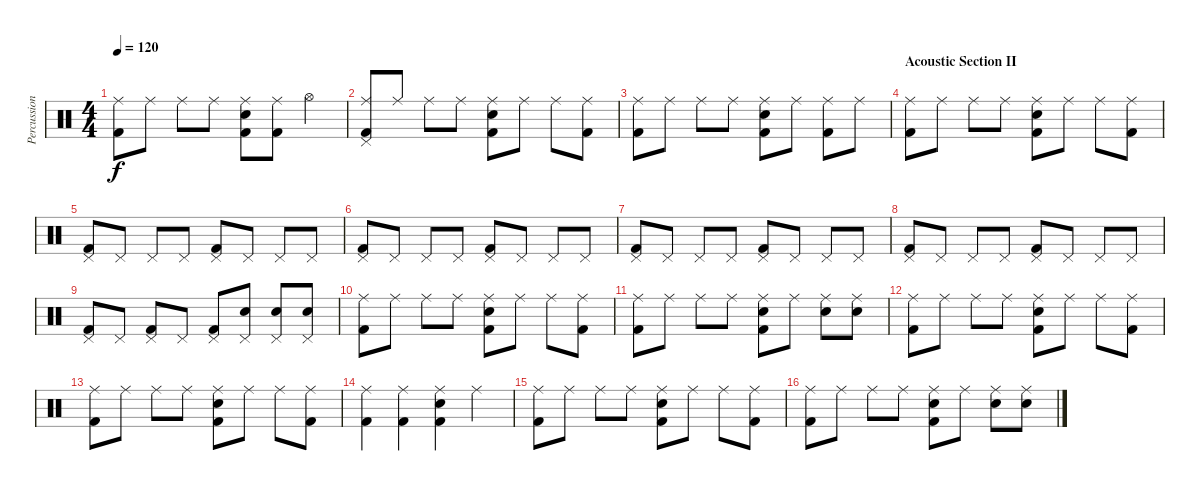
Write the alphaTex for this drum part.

\track ("Percussion" "Percussion") {instrument percussion}
\staff {score}
\articulation defaults
\ts (4 4)
\tempo 120
\clef neutral
\ks c
("Ride (middle)" "Kick (hit) 2").8{dy f} "Ride (middle)".8 "Ride (middle)".8 "Ride (middle)".8 ("Ride (middle)" "Snare (hit) 2" "Kick (hit) 2").8 ("Ride (middle)" "Kick (hit) 2").8 "Hi-Hat (open)".4 |
("Ride (middle)" "Pedal Hi-Hat (hit)" "Kick (hit) 2").8 "Ride (middle)".8 "Ride (middle)".8 "Ride (middle)".8 ("Ride (middle)" "Snare (hit) 2" "Kick (hit) 2").8 "Ride (middle)".8 "Ride (middle)".8 ("Ride (middle)" "Kick (hit) 2").8 |
("Ride (middle)" "Kick (hit) 2").8 "Ride (middle)".8 "Ride (middle)".8 "Ride (middle)".8 ("Ride (middle)" "Snare (hit) 2" "Kick (hit) 2").8 "Ride (middle)".8 ("Ride (middle)" "Kick (hit) 2").8 "Ride (middle)".8 |
\section ("" "Acoustic Section II")
("Ride (middle)" "Kick (hit) 2").8 "Ride (middle)".8 "Ride (middle)".8 "Ride (middle)".8 ("Ride (middle)" "Snare (hit) 2" "Kick (hit) 2").8 "Ride (middle)".8 "Ride (middle)".8 ("Ride (middle)" "Kick (hit) 2").8 |
("Pedal Hi-Hat (hit)" "Kick (hit) 2").8 "Pedal Hi-Hat (hit)".8 "Pedal Hi-Hat (hit)".8 "Pedal Hi-Hat (hit)".8 ("Pedal Hi-Hat (hit)" "Kick (hit) 2").8 "Pedal Hi-Hat (hit)".8 "Pedal Hi-Hat (hit)".8 "Pedal Hi-Hat (hit)".8 |
("Pedal Hi-Hat (hit)" "Kick (hit) 2").8 "Pedal Hi-Hat (hit)".8 "Pedal Hi-Hat (hit)".8 "Pedal Hi-Hat (hit)".8 ("Pedal Hi-Hat (hit)" "Kick (hit) 2").8 "Pedal Hi-Hat (hit)".8 "Pedal Hi-Hat (hit)".8 "Pedal Hi-Hat (hit)".8 |
("Pedal Hi-Hat (hit)" "Kick (hit) 2").8 "Pedal Hi-Hat (hit)".8 "Pedal Hi-Hat (hit)".8 "Pedal Hi-Hat (hit)".8 ("Pedal Hi-Hat (hit)" "Kick (hit) 2").8 "Pedal Hi-Hat (hit)".8 "Pedal Hi-Hat (hit)".8 "Pedal Hi-Hat (hit)".8 |
("Pedal Hi-Hat (hit)" "Kick (hit) 2").8 "Pedal Hi-Hat (hit)".8 "Pedal Hi-Hat (hit)".8 "Pedal Hi-Hat (hit)".8 ("Pedal Hi-Hat (hit)" "Kick (hit) 2").8 "Pedal Hi-Hat (hit)".8 "Pedal Hi-Hat (hit)".8 "Pedal Hi-Hat (hit)".8 |
("Pedal Hi-Hat (hit)" "Kick (hit) 2").8 "Pedal Hi-Hat (hit)".8 ("Pedal Hi-Hat (hit)" "Kick (hit) 2").8 "Pedal Hi-Hat (hit)".8 ("Pedal Hi-Hat (hit)" "Kick (hit) 2").8 ("Pedal Hi-Hat (hit)" "Snare (hit) 2").8 ("Pedal Hi-Hat (hit)" "Snare (hit) 2").8 ("Pedal Hi-Hat (hit)" "Snare (hit) 2").8 |
("Ride (middle)" "Kick (hit) 2").8 "Ride (middle)".8 "Ride (middle)".8 "Ride (middle)".8 ("Ride (middle)" "Snare (hit) 2" "Kick (hit) 2").8 "Ride (middle)".8 "Ride (middle)".8 ("Ride (middle)" "Kick (hit) 2").8 |
("Ride (middle)" "Kick (hit) 2").8 "Ride (middle)".8 "Ride (middle)".8 "Ride (middle)".8 ("Ride (middle)" "Snare (hit) 2" "Kick (hit) 2").8 "Ride (middle)".8 ("Ride (middle)" "Snare (hit) 2").8 ("Ride (middle)" "Snare (hit) 2").8 |
("Ride (middle)" "Kick (hit) 2").8 "Ride (middle)".8 "Ride (middle)".8 "Ride (middle)".8 ("Ride (middle)" "Snare (hit) 2" "Kick (hit) 2").8 "Ride (middle)".8 "Ride (middle)".8 ("Ride (middle)" "Kick (hit) 2").8 |
("Ride (middle)" "Kick (hit) 2").8 "Ride (middle)".8 "Ride (middle)".8 "Ride (middle)".8 ("Ride (middle)" "Snare (hit) 2" "Kick (hit) 2").8 "Ride (middle)".8 "Ride (middle)".8 ("Ride (middle)" "Kick (hit) 2").8 |
("Ride (middle)" "Kick (hit) 2").4 ("Ride (middle)" "Kick (hit) 2").4 ("Ride (middle)" "Snare (hit) 2" "Kick (hit) 2").4 "Ride (middle)".4 |
("Ride (middle)" "Kick (hit) 2").8 "Ride (middle)".8 "Ride (middle)".8 "Ride (middle)".8 ("Ride (middle)" "Snare (hit) 2" "Kick (hit) 2").8 "Ride (middle)".8 "Ride (middle)".8 ("Ride (middle)" "Kick (hit) 2").8 |
("Ride (middle)" "Kick (hit) 2").8 "Ride (middle)".8 "Ride (middle)".8 "Ride (middle)".8 ("Ride (middle)" "Snare (hit) 2" "Kick (hit) 2").8 "Ride (middle)".8 ("Ride (middle)" "Snare (hit) 2").8 ("Ride (middle)" "Snare (hit) 2").8
